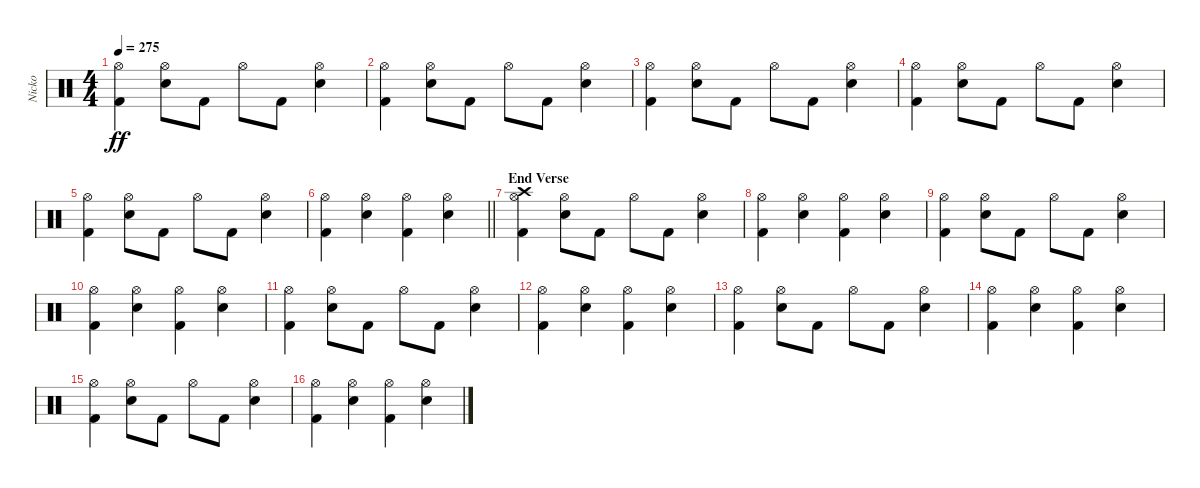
\track ("Nicko" "Nicko") {instrument percussion}
\staff {score}
\articulation defaults
\ts (4 4)
\tempo 275
\clef neutral
\ks c
("Kick (hit) 2" "Hi-Hat (open)").4{dy ff} ("Snare (hit) 2" "Hi-Hat (open)").8 "Kick (hit) 2".8 "Hi-Hat (open)".8 "Kick (hit) 2".8 ("Snare (hit) 2" "Hi-Hat (open)").4 |
("Kick (hit) 2" "Hi-Hat (open)").4 ("Snare (hit) 2" "Hi-Hat (open)").8 "Kick (hit) 2".8 "Hi-Hat (open)".8 "Kick (hit) 2".8 ("Snare (hit) 2" "Hi-Hat (open)").4 |
("Kick (hit) 2" "Hi-Hat (open)").4 ("Snare (hit) 2" "Hi-Hat (open)").8 "Kick (hit) 2".8 "Hi-Hat (open)".8 "Kick (hit) 2".8 ("Snare (hit) 2" "Hi-Hat (open)").4 |
("Kick (hit) 2" "Hi-Hat (open)").4 ("Snare (hit) 2" "Hi-Hat (open)").8 "Kick (hit) 2".8 "Hi-Hat (open)".8 "Kick (hit) 2".8 ("Snare (hit) 2" "Hi-Hat (open)").4 |
("Kick (hit) 2" "Hi-Hat (open)").4 ("Snare (hit) 2" "Hi-Hat (open)").8 "Kick (hit) 2".8 "Hi-Hat (open)".8 "Kick (hit) 2".8 ("Snare (hit) 2" "Hi-Hat (open)").4 |
\barLineRight lightlight
("Kick (hit) 2" "Hi-Hat (open)").4 ("Snare (hit) 2" "Hi-Hat (open)").4 ("Kick (hit) 2" "Hi-Hat (open)").4 ("Snare (hit) 2" "Hi-Hat (open)").4 |
\section ("" "End Verse")
("Kick (hit) 2" "Hi-Hat (open)" "Crash high (hit)").4 ("Snare (hit) 2" "Hi-Hat (open)").8 "Kick (hit) 2".8 "Hi-Hat (open)".8 "Kick (hit) 2".8 ("Snare (hit) 2" "Hi-Hat (open)").4 |
("Kick (hit) 2" "Hi-Hat (open)").4 ("Snare (hit) 2" "Hi-Hat (open)").4 ("Kick (hit) 2" "Hi-Hat (open)").4 ("Snare (hit) 2" "Hi-Hat (open)").4 |
("Kick (hit) 2" "Hi-Hat (open)").4 ("Snare (hit) 2" "Hi-Hat (open)").8 "Kick (hit) 2".8 "Hi-Hat (open)".8 "Kick (hit) 2".8 ("Snare (hit) 2" "Hi-Hat (open)").4 |
("Kick (hit) 2" "Hi-Hat (open)").4 ("Snare (hit) 2" "Hi-Hat (open)").4 ("Kick (hit) 2" "Hi-Hat (open)").4 ("Snare (hit) 2" "Hi-Hat (open)").4 |
("Kick (hit) 2" "Hi-Hat (open)").4 ("Snare (hit) 2" "Hi-Hat (open)").8 "Kick (hit) 2".8 "Hi-Hat (open)".8 "Kick (hit) 2".8 ("Snare (hit) 2" "Hi-Hat (open)").4 |
("Kick (hit) 2" "Hi-Hat (open)").4 ("Snare (hit) 2" "Hi-Hat (open)").4 ("Kick (hit) 2" "Hi-Hat (open)").4 ("Snare (hit) 2" "Hi-Hat (open)").4 |
("Kick (hit) 2" "Hi-Hat (open)").4 ("Snare (hit) 2" "Hi-Hat (open)").8 "Kick (hit) 2".8 "Hi-Hat (open)".8 "Kick (hit) 2".8 ("Snare (hit) 2" "Hi-Hat (open)").4 |
("Kick (hit) 2" "Hi-Hat (open)").4 ("Snare (hit) 2" "Hi-Hat (open)").4 ("Kick (hit) 2" "Hi-Hat (open)").4 ("Snare (hit) 2" "Hi-Hat (open)").4 |
("Kick (hit) 2" "Hi-Hat (open)").4 ("Snare (hit) 2" "Hi-Hat (open)").8 "Kick (hit) 2".8 "Hi-Hat (open)".8 "Kick (hit) 2".8 ("Snare (hit) 2" "Hi-Hat (open)").4 |
("Kick (hit) 2" "Hi-Hat (open)").4 ("Snare (hit) 2" "Hi-Hat (open)").4 ("Kick (hit) 2" "Hi-Hat (open)").4 ("Snare (hit) 2" "Hi-Hat (open)").4
